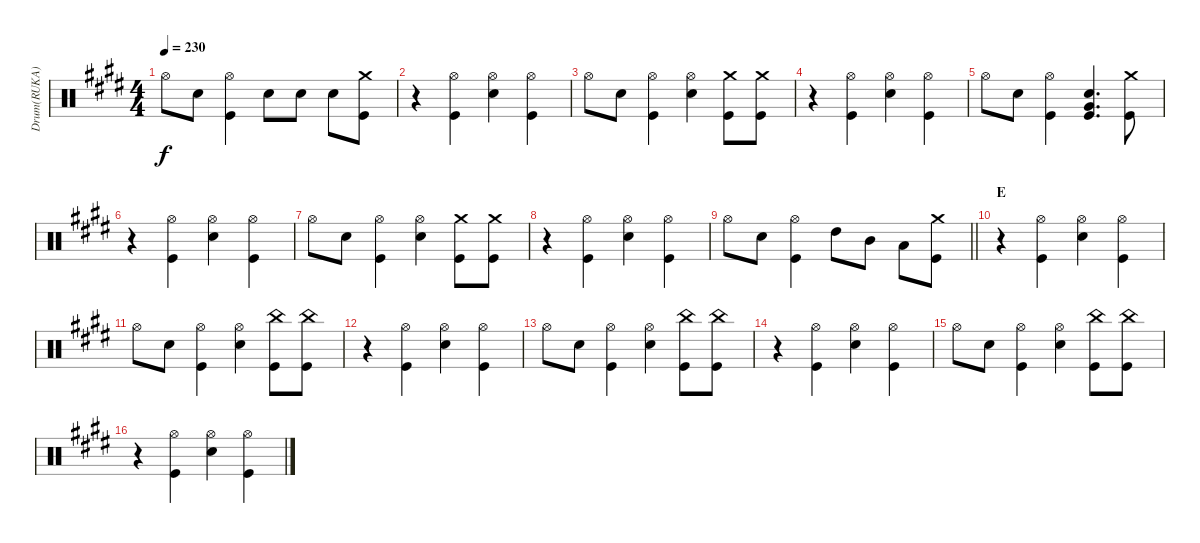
\track ("Drum(RUKA)" "Drum(RUKA)") {instrument percussion}
\staff {score}
\articulation defaults
\ts (4 4)
\tempo 230
\clef neutral
\ks e "Hi-Hat (open)".8{dy f} "Electric Snare (hit)".8
("Hi-Hat (open)" "Kick (hit)").4 "Electric Snare (hit)".8 "Electric Snare (hit)".8 "Electric Snare (hit)".8 ("Crash medium (hit)" "Kick (hit)").8 |
r.4 ("Hi-Hat (open)" "Kick (hit)").4 ("Hi-Hat (open)" "Electric Snare (hit)").4 ("Hi-Hat (open)" "Kick (hit)").4 |
"Hi-Hat (open)".8 "Electric Snare (hit)".8 ("Hi-Hat (open)" "Kick (hit)").4 ("Hi-Hat (open)" "Electric Snare (hit)").4 ("Crash medium (hit)" "Kick (hit)").8 ("Crash medium (hit)" "Kick (hit)").8 |
r.4 ("Hi-Hat (open)" "Kick (hit)").4 ("Hi-Hat (open)" "Electric Snare (hit)").4 ("Hi-Hat (open)" "Kick (hit)").4 |
"Hi-Hat (open)".8 "Electric Snare (hit)".8 ("Hi-Hat (open)" "Kick (hit)").4 ("Electric Snare (hit)" "Very Low Tom (hit)" "Kick (hit)").4{d} ("Crash medium (hit)" "Kick (hit)").8 |
r.4 ("Hi-Hat (open)" "Kick (hit)").4 ("Hi-Hat (open)" "Electric Snare (hit)").4 ("Hi-Hat (open)" "Kick (hit)").4 |
"Hi-Hat (open)".8 "Electric Snare (hit)".8 ("Hi-Hat (open)" "Kick (hit)").4 ("Hi-Hat (open)" "Electric Snare (hit)").4 ("Crash medium (hit)" "Kick (hit)").8 ("Crash medium (hit)" "Kick (hit)").8 |
r.4 ("Hi-Hat (open)" "Kick (hit)").4 ("Hi-Hat (open)" "Electric Snare (hit)").4 ("Hi-Hat (open)" "Kick (hit)").4 |
\barLineRight lightlight "Hi-Hat (open)".8 "Electric Snare (hit)".8
("Hi-Hat (open)" "Kick (hit)").4 "High Tom (hit)".8 "Mid Tom (hit)".8 "Low Tom (hit)".8 ("Crash medium (hit)" "Kick (hit)").8 |
\section ("" "E")
r.4 ("Hi-Hat (open)" "Kick (hit)").4 ("Hi-Hat (open)" "Electric Snare (hit)").4 ("Hi-Hat (open)" "Kick (hit)").4 |
"Hi-Hat (open)".8 "Electric Snare (hit)".8 ("Hi-Hat (open)" "Kick (hit)").4 ("Hi-Hat (open)" "Electric Snare (hit)").4 ("China (hit)" "Kick (hit)").8 ("China (hit)" "Kick (hit)").8 |
r.4 ("Hi-Hat (open)" "Kick (hit)").4 ("Hi-Hat (open)" "Electric Snare (hit)").4 ("Hi-Hat (open)" "Kick (hit)").4 |
"Hi-Hat (open)".8 "Electric Snare (hit)".8 ("Hi-Hat (open)" "Kick (hit)").4 ("Hi-Hat (open)" "Electric Snare (hit)").4 ("China (hit)" "Kick (hit)").8 ("China (hit)" "Kick (hit)").8 |
r.4 ("Hi-Hat (open)" "Kick (hit)").4 ("Hi-Hat (open)" "Electric Snare (hit)").4 ("Hi-Hat (open)" "Kick (hit)").4 |
"Hi-Hat (open)".8 "Electric Snare (hit)".8 ("Hi-Hat (open)" "Kick (hit)").4 ("Hi-Hat (open)" "Electric Snare (hit)").4 ("China (hit)" "Kick (hit)").8 ("China (hit)" "Kick (hit)").8 |
r.4 ("Hi-Hat (open)" "Kick (hit)").4 ("Hi-Hat (open)" "Electric Snare (hit)").4 ("Hi-Hat (open)" "Kick (hit)").4
